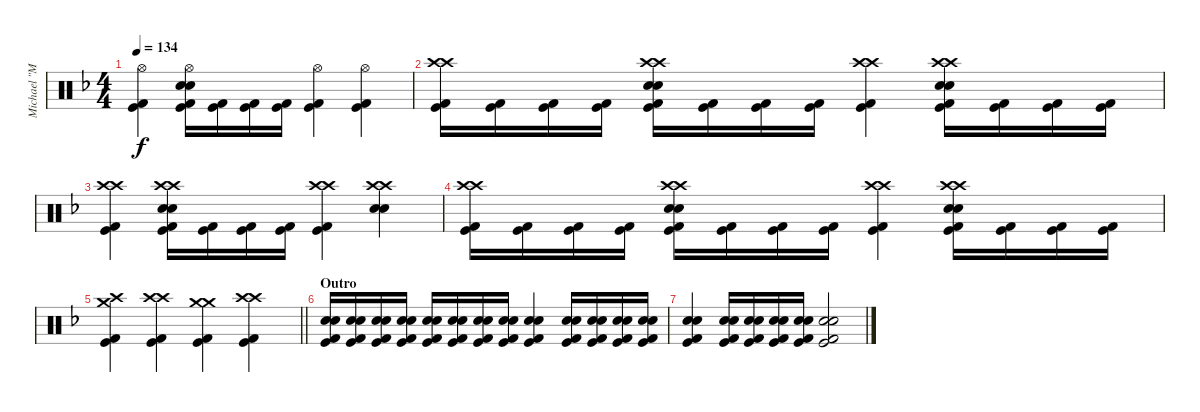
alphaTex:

\track ("Michael \"Moose\" Thomas" "Michael \"M") {instrument percussion}
\staff {score}
\articulation defaults
\ts (4 4)
\tempo 134
\clef neutral
\ks f
("Hi-Hat (open)" "Kick (hit)" "Kick (hit) 2").4{dy f} ("Hi-Hat (open)" "Electric Snare (hit)" "Electric Snare (hit)" "Kick (hit)" "Kick (hit) 2").16 ("Kick (hit)" "Kick (hit) 2").16 ("Kick (hit)" "Kick (hit) 2").16 ("Kick (hit)" "Kick (hit) 2").16 ("Hi-Hat (open)" "Kick (hit)" "Kick (hit) 2").4 ("Hi-Hat (open)" "Kick (hit)" "Kick (hit) 2").4 |
("Crash high (hit)" "Crash high (hit)" "Kick (hit)" "Kick (hit) 2").16 ("Kick (hit)" "Kick (hit) 2").16 ("Kick (hit)" "Kick (hit) 2").16 ("Kick (hit)" "Kick (hit) 2").16 ("Crash high (hit)" "Crash high (hit)" "Electric Snare (hit)" "Electric Snare (hit)" "Kick (hit)" "Kick (hit) 2").16 ("Kick (hit)" "Kick (hit) 2").16 ("Kick (hit)" "Kick (hit) 2").16 ("Kick (hit)" "Kick (hit) 2").16 ("Crash high (hit)" "Crash high (hit)" "Kick (hit)" "Kick (hit) 2").4 ("Crash high (hit)" "Crash high (hit)" "Electric Snare (hit)" "Electric Snare (hit)" "Kick (hit)" "Kick (hit) 2").16 ("Kick (hit)" "Kick (hit) 2").16 ("Kick (hit)" "Kick (hit) 2").16 ("Kick (hit)" "Kick (hit) 2").16 |
("Crash high (hit)" "Crash high (hit)" "Kick (hit)" "Kick (hit) 2").4 ("Crash high (hit)" "Crash high (hit)" "Electric Snare (hit)" "Electric Snare (hit)" "Kick (hit)" "Kick (hit) 2").16 ("Kick (hit)" "Kick (hit) 2").16 ("Kick (hit)" "Kick (hit) 2").16 ("Kick (hit)" "Kick (hit) 2").16 ("Crash high (hit)" "Crash high (hit)" "Kick (hit)" "Kick (hit) 2").4 ("Crash high (hit)" "Crash high (hit)" "Electric Snare (hit)" "Electric Snare (hit)").4 |
("Crash high (hit)" "Crash high (hit)" "Kick (hit)" "Kick (hit) 2").16 ("Kick (hit)" "Kick (hit) 2").16 ("Kick (hit)" "Kick (hit) 2").16 ("Kick (hit)" "Kick (hit) 2").16 ("Crash high (hit)" "Crash high (hit)" "Electric Snare (hit)" "Electric Snare (hit)" "Kick (hit)" "Kick (hit) 2").16 ("Kick (hit)" "Kick (hit) 2").16 ("Kick (hit)" "Kick (hit) 2").16 ("Kick (hit)" "Kick (hit) 2").16 ("Crash high (hit)" "Crash high (hit)" "Kick (hit)" "Kick (hit) 2").4 ("Crash high (hit)" "Crash high (hit)" "Electric Snare (hit)" "Electric Snare (hit)" "Kick (hit)" "Kick (hit) 2").16 ("Kick (hit)" "Kick (hit) 2").16 ("Kick (hit)" "Kick (hit) 2").16 ("Kick (hit)" "Kick (hit) 2").16 |
\barLineRight lightlight
("Crash high (hit)" "Crash medium (hit)" "Kick (hit)" "Kick (hit) 2").4 ("Crash high (hit)" "Crash high (hit)" "Kick (hit)" "Kick (hit) 2").4 ("Crash medium (hit)" "Crash medium (hit)" "Kick (hit)" "Kick (hit) 2").4 ("Crash high (hit)" "Crash high (hit)" "Kick (hit)" "Kick (hit) 2").4 |
\section ("" "Outro")
("Electric Snare (hit)" "Electric Snare (hit)" "Kick (hit)" "Kick (hit) 2").16 ("Electric Snare (hit)" "Electric Snare (hit)" "Kick (hit)" "Kick (hit) 2").16 ("Electric Snare (hit)" "Electric Snare (hit)" "Kick (hit)" "Kick (hit) 2").16 ("Electric Snare (hit)" "Electric Snare (hit)" "Kick (hit)" "Kick (hit) 2").16 ("Electric Snare (hit)" "Electric Snare (hit)" "Kick (hit)" "Kick (hit) 2").16 ("Electric Snare (hit)" "Electric Snare (hit)" "Kick (hit)" "Kick (hit) 2").16 ("Electric Snare (hit)" "Electric Snare (hit)" "Kick (hit)" "Kick (hit) 2").16 ("Electric Snare (hit)" "Electric Snare (hit)" "Kick (hit)" "Kick (hit) 2").16 ("Electric Snare (hit)" "Electric Snare (hit)" "Kick (hit)" "Kick (hit) 2").4 ("Electric Snare (hit)" "Electric Snare (hit)" "Kick (hit)" "Kick (hit) 2").16 ("Electric Snare (hit)" "Electric Snare (hit)" "Kick (hit)" "Kick (hit) 2").16 ("Electric Snare (hit)" "Electric Snare (hit)" "Kick (hit)" "Kick (hit) 2").16 ("Electric Snare (hit)" "Electric Snare (hit)" "Kick (hit)" "Kick (hit) 2").16 |
("Electric Snare (hit)" "Electric Snare (hit)" "Kick (hit)" "Kick (hit) 2").4 ("Electric Snare (hit)" "Electric Snare (hit)" "Kick (hit)" "Kick (hit) 2").16 ("Electric Snare (hit)" "Electric Snare (hit)" "Kick (hit)" "Kick (hit) 2").16 ("Electric Snare (hit)" "Electric Snare (hit)" "Kick (hit)" "Kick (hit) 2").16 ("Electric Snare (hit)" "Electric Snare (hit)" "Kick (hit)" "Kick (hit) 2").16 ("Electric Snare (hit)" "Electric Snare (hit)" "Kick (hit)" "Kick (hit) 2").2
